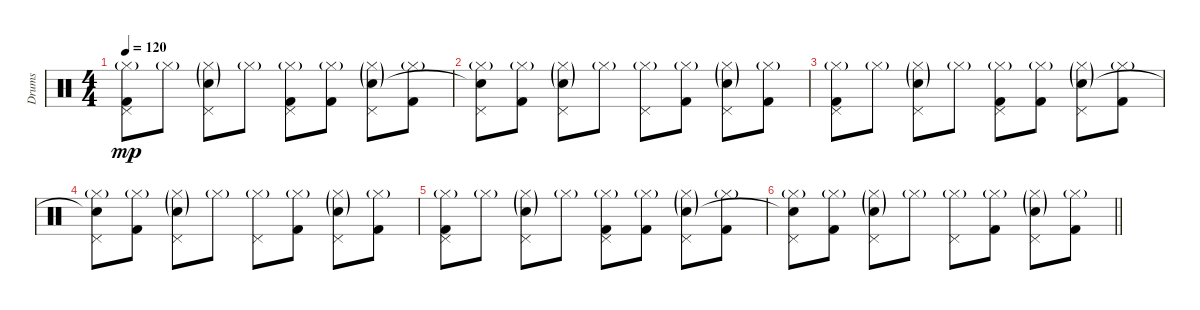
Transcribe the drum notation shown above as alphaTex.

\track ("Drums" "Drums") {instrument percussion}
\staff {score}
\articulation defaults
\ts (4 4)
\tempo 120
\clef neutral
\ks c
("Pedal Hi-Hat (hit)" "Hi-Hat (closed)"{g} "Kick (hit) 2").8{dy mp} "Hi-Hat (closed)"{g}.8 ("Pedal Hi-Hat (hit)" "Hi-Hat (closed)"{g} "Snare (hit) 2"{g}).8 "Hi-Hat (closed)"{g}.8 ("Pedal Hi-Hat (hit)" "Hi-Hat (closed)"{g} "Kick (hit) 2").8 ("Hi-Hat (closed)"{g} "Kick (hit) 2").8 ("Pedal Hi-Hat (hit)" "Hi-Hat (closed)"{g} "Snare (hit) 2"{g}).8 ("Hi-Hat (closed)"{g} "Kick (hit) 2").8 |
("Pedal Hi-Hat (hit)" "Hi-Hat (closed)"{g} "Snare (hit)"{t}).8 ("Hi-Hat (closed)"{g} "Kick (hit) 2").8 ("Pedal Hi-Hat (hit)" "Hi-Hat (closed)"{g} "Snare (hit) 2"{g}).8 "Hi-Hat (closed)"{g}.8 ("Pedal Hi-Hat (hit)" "Hi-Hat (closed)"{g}).8 ("Hi-Hat (closed)"{g} "Kick (hit) 2").8 ("Pedal Hi-Hat (hit)" "Hi-Hat (closed)"{g} "Snare (hit) 2"{g}).8 ("Hi-Hat (closed)"{g} "Kick (hit) 2").8 |
("Pedal Hi-Hat (hit)" "Hi-Hat (closed)"{g} "Kick (hit) 2").8 "Hi-Hat (closed)"{g}.8 ("Pedal Hi-Hat (hit)" "Hi-Hat (closed)"{g} "Snare (hit) 2"{g}).8 "Hi-Hat (closed)"{g}.8 ("Pedal Hi-Hat (hit)" "Hi-Hat (closed)"{g} "Kick (hit) 2").8 ("Hi-Hat (closed)"{g} "Kick (hit) 2").8 ("Pedal Hi-Hat (hit)" "Hi-Hat (closed)"{g} "Snare (hit) 2"{g}).8 ("Hi-Hat (closed)"{g} "Kick (hit) 2").8 |
("Pedal Hi-Hat (hit)" "Hi-Hat (closed)"{g} "Snare (hit)"{t}).8 ("Hi-Hat (closed)"{g} "Kick (hit) 2").8 ("Pedal Hi-Hat (hit)" "Hi-Hat (closed)"{g} "Snare (hit) 2"{g}).8 "Hi-Hat (closed)"{g}.8 ("Pedal Hi-Hat (hit)" "Hi-Hat (closed)"{g}).8 ("Hi-Hat (closed)"{g} "Kick (hit) 2").8 ("Pedal Hi-Hat (hit)" "Hi-Hat (closed)"{g} "Snare (hit) 2"{g}).8 ("Hi-Hat (closed)"{g} "Kick (hit) 2").8 |
("Pedal Hi-Hat (hit)" "Hi-Hat (closed)"{g} "Kick (hit) 2").8 "Hi-Hat (closed)"{g}.8 ("Pedal Hi-Hat (hit)" "Hi-Hat (closed)"{g} "Snare (hit) 2"{g}).8 "Hi-Hat (closed)"{g}.8 ("Pedal Hi-Hat (hit)" "Hi-Hat (closed)"{g} "Kick (hit) 2").8 ("Hi-Hat (closed)"{g} "Kick (hit) 2").8 ("Pedal Hi-Hat (hit)" "Hi-Hat (closed)"{g} "Snare (hit) 2"{g}).8 ("Hi-Hat (closed)"{g} "Kick (hit) 2").8 |
\barLineRight lightlight
("Pedal Hi-Hat (hit)" "Hi-Hat (closed)"{g} "Snare (hit)"{t}).8 ("Hi-Hat (closed)"{g} "Kick (hit) 2").8 ("Pedal Hi-Hat (hit)" "Hi-Hat (closed)"{g} "Snare (hit) 2"{g}).8 "Hi-Hat (closed)"{g}.8 ("Pedal Hi-Hat (hit)" "Hi-Hat (closed)"{g}).8 ("Hi-Hat (closed)"{g} "Kick (hit) 2").8 ("Pedal Hi-Hat (hit)" "Hi-Hat (closed)"{g} "Snare (hit) 2"{g}).8 ("Hi-Hat (closed)"{g} "Kick (hit) 2").8
